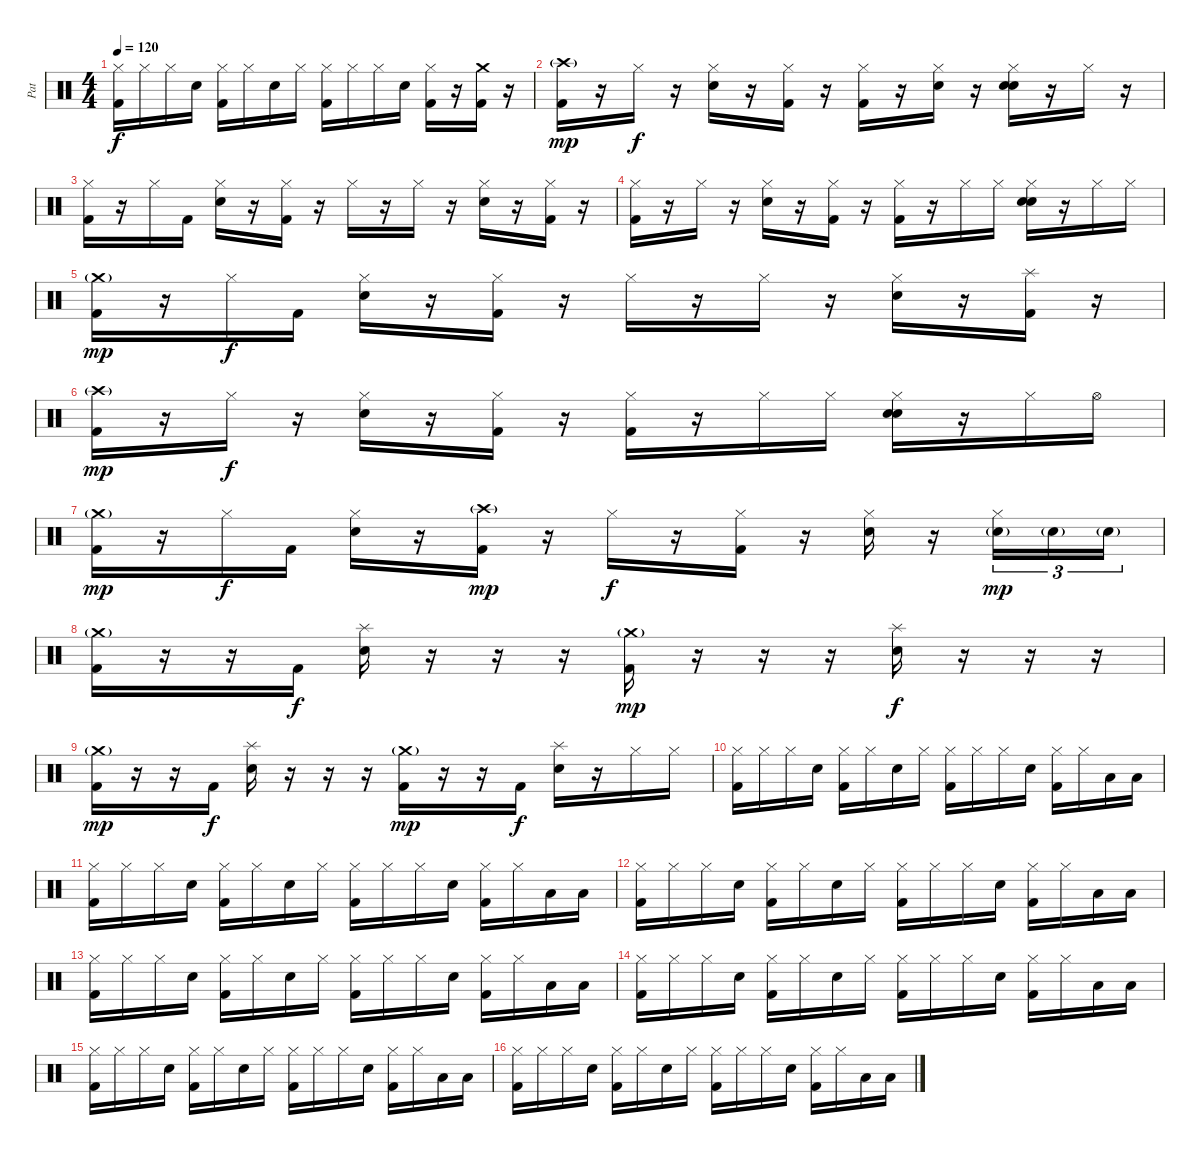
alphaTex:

\track ("Pat" "Pat") {instrument percussion}
\staff {score}
\articulation defaults
\ts (4 4)
\tempo 120
\clef neutral
\ks c
("Hi-Hat (closed)" "Kick (hit) 2").16{dy f} "Hi-Hat (closed)".16 "Hi-Hat (closed)".16 "Electric Snare (hit)".16 ("Hi-Hat (closed)" "Kick (hit) 2").16 "Hi-Hat (closed)".16 "Electric Snare (hit)".16 "Hi-Hat (closed)".16 ("Hi-Hat (closed)" "Kick (hit) 2").16 "Hi-Hat (closed)".16 "Hi-Hat (closed)".16 "Electric Snare (hit)".16 ("Hi-Hat (closed)" "Kick (hit) 2").16 r.16 ("Crash medium (hit)" "Kick (hit) 2").16 r.16 |
("Crash high (hit)"{g} "Kick (hit) 2").16{dy mp} r.16 "Hi-Hat (closed)".16{dy f} r.16 ("Hi-Hat (closed)" "Electric Snare (hit)").16 r.16 ("Hi-Hat (closed)" "Kick (hit) 2").16 r.16 ("Hi-Hat (closed)" "Kick (hit) 2").16 r.16 ("Hi-Hat (closed)" "Hand Clap (hit)").16 r.16 ("Hi-Hat (closed)" "Electric Snare (hit)" "Hand Clap (hit)").16 r.16 "Hi-Hat (closed)".16 r.16 |
("Hi-Hat (closed)" "Kick (hit) 2").16 r.16 "Hi-Hat (closed)".16 "Kick (hit) 2".16 ("Hi-Hat (closed)" "Electric Snare (hit)").16 r.16 ("Hi-Hat (closed)" "Kick (hit) 2").16 r.16 "Hi-Hat (closed)".16 r.16 "Hi-Hat (closed)".16 r.16 ("Hi-Hat (closed)" "Electric Snare (hit)").16 r.16 ("Hi-Hat (closed)" "Kick (hit) 2").16 r.16 |
("Hi-Hat (closed)" "Kick (hit) 2").16 r.16 "Hi-Hat (closed)".16 r.16 ("Hi-Hat (closed)" "Electric Snare (hit)").16 r.16 ("Hi-Hat (closed)" "Kick (hit) 2").16 r.16 ("Hi-Hat (closed)" "Kick (hit) 2").16 r.16 "Hi-Hat (closed)".16 "Hi-Hat (closed)".16 ("Hi-Hat (closed)" "Electric Snare (hit)" "Hand Clap (hit)").16 r.16 "Hi-Hat (closed)".16 "Hi-Hat (closed)".16 |
("Crash medium (hit)"{g} "Kick (hit) 2").16{dy mp} r.16 "Hi-Hat (closed)".16{dy f} "Kick (hit) 2".16 ("Hi-Hat (closed)" "Electric Snare (hit)").16 r.16 ("Hi-Hat (closed)" "Kick (hit) 2").16 r.16 "Hi-Hat (closed)".16 r.16 "Hi-Hat (closed)".16 r.16 ("Hi-Hat (closed)" "Electric Snare (hit)").16 r.16 ("Splash (hit)" "Kick (hit) 2").16 r.16 |
("Crash high (hit)"{g} "Kick (hit) 2").16{dy mp} r.16 "Hi-Hat (closed)".16{dy f} r.16 ("Hi-Hat (closed)" "Electric Snare (hit)").16 r.16 ("Hi-Hat (closed)" "Kick (hit) 2").16 r.16 ("Hi-Hat (closed)" "Kick (hit) 2").16 r.16 "Hi-Hat (closed)".16 "Hi-Hat (closed)".16 ("Hi-Hat (closed)" "Electric Snare (hit)" "Hand Clap (hit)").16 r.16 "Hi-Hat (closed)".16 "Hi-Hat (open)".16 |
("Crash medium (hit)"{g} "Kick (hit) 2").16{dy mp} r.16 "Hi-Hat (closed)".16{dy f} "Kick (hit) 2".16 ("Hi-Hat (closed)" "Electric Snare (hit)").16 r.16 ("Crash high (hit)"{g} "Kick (hit) 2").16{dy mp} r.16 "Hi-Hat (closed)".16{dy f} r.16 ("Hi-Hat (closed)" "Kick (hit) 2").16 r.16 ("Hi-Hat (closed)" "Electric Snare (hit)").16 r.16 ("Hi-Hat (closed)" "Electric Snare (hit)"{g}).16{tu (3 2) dy mp} "Electric Snare (hit)"{g}.16{tu (3 2)} "Electric Snare (hit)"{g}.16{tu (3 2)} |
("Crash medium (hit)"{g} "Kick (hit) 2").16 r.16 r.16 "Kick (hit) 2".16{dy f} ("Splash (hit)" "Electric Snare (hit)").16 r.16 r.16 r.16 ("Crash medium (hit)"{g} "Kick (hit) 2").16{dy mp} r.16 r.16 r.16 ("Splash (hit)" "Electric Snare (hit)").16{dy f} r.16 r.16 r.16 |
("Crash medium (hit)"{g} "Kick (hit) 2").16{dy mp} r.16 r.16 "Kick (hit) 2".16{dy f} ("Splash (hit)" "Electric Snare (hit)").16 r.16 r.16 r.16 ("Crash medium (hit)"{g} "Kick (hit) 2").16{dy mp} r.16 r.16 "Kick (hit) 2".16{dy f} ("Splash (hit)" "Electric Snare (hit)").16 r.16 "Hi-Hat (closed)".16 "Hi-Hat (closed)".16 |
("Hi-Hat (closed)" "Kick (hit) 2").16 "Hi-Hat (closed)".16 "Hi-Hat (closed)".16 "Electric Snare (hit)".16 ("Hi-Hat (closed)" "Kick (hit) 2").16 "Hi-Hat (closed)".16 "Electric Snare (hit)".16 "Hi-Hat (closed)".16 ("Hi-Hat (closed)" "Kick (hit) 2").16 "Hi-Hat (closed)".16 "Hi-Hat (closed)".16 "Electric Snare (hit)".16 ("Hi-Hat (closed)" "Kick (hit) 2").16 "Hi-Hat (closed)".16 "Low Tom (hit)".16 "Low Tom (hit)".16 |
("Hi-Hat (closed)" "Kick (hit) 2").16 "Hi-Hat (closed)".16 "Hi-Hat (closed)".16 "Electric Snare (hit)".16 ("Hi-Hat (closed)" "Kick (hit) 2").16 "Hi-Hat (closed)".16 "Electric Snare (hit)".16 "Hi-Hat (closed)".16 ("Hi-Hat (closed)" "Kick (hit) 2").16 "Hi-Hat (closed)".16 "Hi-Hat (closed)".16 "Electric Snare (hit)".16 ("Hi-Hat (closed)" "Kick (hit) 2").16 "Hi-Hat (closed)".16 "Low Tom (hit)".16 "Low Tom (hit)".16 |
("Hi-Hat (closed)" "Kick (hit) 2").16 "Hi-Hat (closed)".16 "Hi-Hat (closed)".16 "Electric Snare (hit)".16 ("Hi-Hat (closed)" "Kick (hit) 2").16 "Hi-Hat (closed)".16 "Electric Snare (hit)".16 "Hi-Hat (closed)".16 ("Hi-Hat (closed)" "Kick (hit) 2").16 "Hi-Hat (closed)".16 "Hi-Hat (closed)".16 "Electric Snare (hit)".16 ("Hi-Hat (closed)" "Kick (hit) 2").16 "Hi-Hat (closed)".16 "Low Tom (hit)".16 "Low Tom (hit)".16 |
("Hi-Hat (closed)" "Kick (hit) 2").16 "Hi-Hat (closed)".16 "Hi-Hat (closed)".16 "Electric Snare (hit)".16 ("Hi-Hat (closed)" "Kick (hit) 2").16 "Hi-Hat (closed)".16 "Electric Snare (hit)".16 "Hi-Hat (closed)".16 ("Hi-Hat (closed)" "Kick (hit) 2").16 "Hi-Hat (closed)".16 "Hi-Hat (closed)".16 "Electric Snare (hit)".16 ("Hi-Hat (closed)" "Kick (hit) 2").16 "Hi-Hat (closed)".16 "Low Tom (hit)".16 "Low Tom (hit)".16 |
("Hi-Hat (closed)" "Kick (hit) 2").16 "Hi-Hat (closed)".16 "Hi-Hat (closed)".16 "Electric Snare (hit)".16 ("Hi-Hat (closed)" "Kick (hit) 2").16 "Hi-Hat (closed)".16 "Electric Snare (hit)".16 "Hi-Hat (closed)".16 ("Hi-Hat (closed)" "Kick (hit) 2").16 "Hi-Hat (closed)".16 "Hi-Hat (closed)".16 "Electric Snare (hit)".16 ("Hi-Hat (closed)" "Kick (hit) 2").16 "Hi-Hat (closed)".16 "Low Tom (hit)".16 "Low Tom (hit)".16 |
("Hi-Hat (closed)" "Kick (hit) 2").16 "Hi-Hat (closed)".16 "Hi-Hat (closed)".16 "Electric Snare (hit)".16 ("Hi-Hat (closed)" "Kick (hit) 2").16 "Hi-Hat (closed)".16 "Electric Snare (hit)".16 "Hi-Hat (closed)".16 ("Hi-Hat (closed)" "Kick (hit) 2").16 "Hi-Hat (closed)".16 "Hi-Hat (closed)".16 "Electric Snare (hit)".16 ("Hi-Hat (closed)" "Kick (hit) 2").16 "Hi-Hat (closed)".16 "Low Tom (hit)".16 "Low Tom (hit)".16 |
("Hi-Hat (closed)" "Kick (hit) 2").16 "Hi-Hat (closed)".16 "Hi-Hat (closed)".16 "Electric Snare (hit)".16 ("Hi-Hat (closed)" "Kick (hit) 2").16 "Hi-Hat (closed)".16 "Electric Snare (hit)".16 "Hi-Hat (closed)".16 ("Hi-Hat (closed)" "Kick (hit) 2").16 "Hi-Hat (closed)".16 "Hi-Hat (closed)".16 "Electric Snare (hit)".16 ("Hi-Hat (closed)" "Kick (hit) 2").16 "Hi-Hat (closed)".16 "Low Tom (hit)".16 "Low Tom (hit)".16
